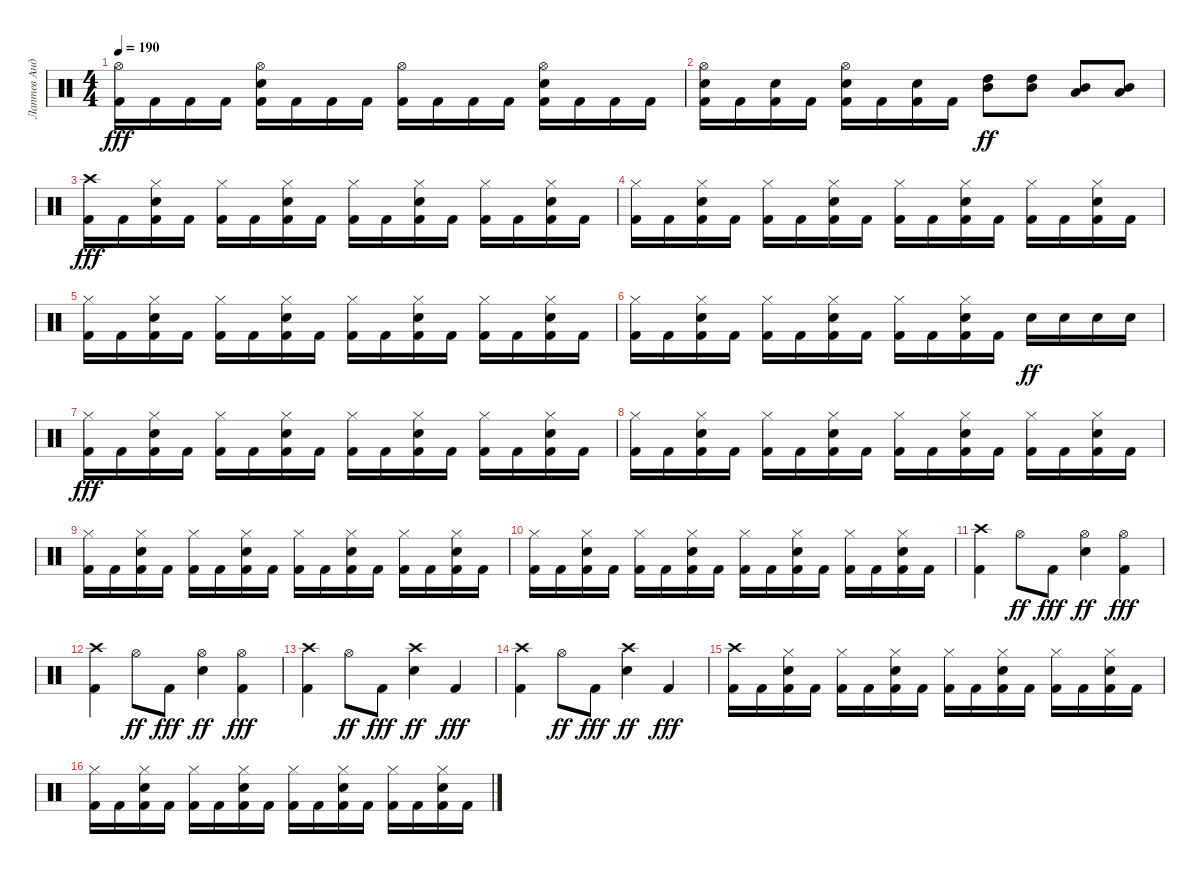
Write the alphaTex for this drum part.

\track ("Лаптев Андрей" "Лаптев Анд") {instrument percussion}
\staff {score}
\articulation defaults
\ts (4 4)
\tempo 190
\clef neutral
\ks c
("Hi-Hat (open)" "Kick (hit) 2").16{dy fff} "Kick (hit) 2".16 "Kick (hit) 2".16 "Kick (hit) 2".16 ("Electric Snare (hit)" "Hi-Hat (open)" "Kick (hit) 2").16 "Kick (hit) 2".16 "Kick (hit) 2".16 "Kick (hit) 2".16 ("Hi-Hat (open)" "Kick (hit) 2").16 "Kick (hit) 2".16 "Kick (hit) 2".16 "Kick (hit) 2".16 ("Hi-Hat (open)" "Electric Snare (hit)" "Kick (hit) 2").16 "Kick (hit) 2".16 "Kick (hit) 2".16 "Kick (hit) 2".16 |
("Hi-Hat (open)" "Electric Snare (hit)" "Kick (hit) 2").16 "Kick (hit) 2".16 ("Electric Snare (hit)" "Kick (hit) 2").16 "Kick (hit) 2".16 ("Electric Snare (hit)" "Hi-Hat (open)" "Kick (hit) 2").16 "Kick (hit) 2".16 ("Electric Snare (hit)" "Kick (hit) 2").16 "Kick (hit) 2".16 ("Mid Tom (hit)" "High Tom (hit)").8{dy ff} ("Mid Tom (hit)" "High Tom (hit)").8 ("Low Tom (hit)" "Mid Tom (hit)").8 ("Low Tom (hit)" "Mid Tom (hit)").8 |
("Crash high (hit)" "Kick (hit) 2").16{dy fff} "Kick (hit) 2".16 ("Electric Snare (hit)" "Hi-Hat (closed)" "Kick (hit) 2").16 "Kick (hit) 2".16 ("Hi-Hat (closed)" "Kick (hit) 2").16 "Kick (hit) 2".16 ("Electric Snare (hit)" "Hi-Hat (closed)" "Kick (hit) 2").16 "Kick (hit) 2".16 ("Hi-Hat (closed)" "Kick (hit) 2").16 "Kick (hit) 2".16 ("Hi-Hat (closed)" "Electric Snare (hit)" "Kick (hit) 2").16 "Kick (hit) 2".16 ("Hi-Hat (closed)" "Kick (hit) 2").16 "Kick (hit) 2".16 ("Electric Snare (hit)" "Hi-Hat (closed)" "Kick (hit) 2").16 "Kick (hit) 2".16 |
("Hi-Hat (closed)" "Kick (hit) 2").16 "Kick (hit) 2".16 ("Hi-Hat (closed)" "Electric Snare (hit)" "Kick (hit) 2").16 "Kick (hit) 2".16 ("Hi-Hat (closed)" "Kick (hit) 2").16 "Kick (hit) 2".16 ("Hi-Hat (closed)" "Electric Snare (hit)" "Kick (hit) 2").16 "Kick (hit) 2".16 ("Hi-Hat (closed)" "Kick (hit) 2").16 "Kick (hit) 2".16 ("Hi-Hat (closed)" "Electric Snare (hit)" "Kick (hit) 2").16 "Kick (hit) 2".16 ("Hi-Hat (closed)" "Kick (hit) 2").16 "Kick (hit) 2".16 ("Hi-Hat (closed)" "Electric Snare (hit)" "Kick (hit) 2").16 "Kick (hit) 2".16 |
("Hi-Hat (closed)" "Kick (hit) 2").16 "Kick (hit) 2".16 ("Hi-Hat (closed)" "Electric Snare (hit)" "Kick (hit) 2").16 "Kick (hit) 2".16 ("Hi-Hat (closed)" "Kick (hit) 2").16 "Kick (hit) 2".16 ("Hi-Hat (closed)" "Electric Snare (hit)" "Kick (hit) 2").16 "Kick (hit) 2".16 ("Hi-Hat (closed)" "Kick (hit) 2").16 "Kick (hit) 2".16 ("Hi-Hat (closed)" "Electric Snare (hit)" "Kick (hit) 2").16 "Kick (hit) 2".16 ("Hi-Hat (closed)" "Kick (hit) 2").16 "Kick (hit) 2".16 ("Hi-Hat (closed)" "Electric Snare (hit)" "Kick (hit) 2").16 "Kick (hit) 2".16 |
("Hi-Hat (closed)" "Kick (hit) 2").16 "Kick (hit) 2".16 ("Hi-Hat (closed)" "Electric Snare (hit)" "Kick (hit) 2").16 "Kick (hit) 2".16 ("Hi-Hat (closed)" "Kick (hit) 2").16 "Kick (hit) 2".16 ("Hi-Hat (closed)" "Electric Snare (hit)" "Kick (hit) 2").16 "Kick (hit) 2".16 ("Hi-Hat (closed)" "Kick (hit) 2").16 "Kick (hit) 2".16 ("Hi-Hat (closed)" "Electric Snare (hit)" "Kick (hit) 2").16 "Kick (hit) 2".16 "Electric Snare (hit)".16{dy ff} "Electric Snare (hit)".16 "Electric Snare (hit)".16 "Electric Snare (hit)".16 |
("Hi-Hat (closed)" "Kick (hit) 2").16{dy fff} "Kick (hit) 2".16 ("Hi-Hat (closed)" "Electric Snare (hit)" "Kick (hit) 2").16 "Kick (hit) 2".16 ("Hi-Hat (closed)" "Kick (hit) 2").16 "Kick (hit) 2".16 ("Hi-Hat (closed)" "Electric Snare (hit)" "Kick (hit) 2").16 "Kick (hit) 2".16 ("Hi-Hat (closed)" "Kick (hit) 2").16 "Kick (hit) 2".16 ("Hi-Hat (closed)" "Electric Snare (hit)" "Kick (hit) 2").16 "Kick (hit) 2".16 ("Hi-Hat (closed)" "Kick (hit) 2").16 "Kick (hit) 2".16 ("Hi-Hat (closed)" "Electric Snare (hit)" "Kick (hit) 2").16 "Kick (hit) 2".16 |
("Hi-Hat (closed)" "Kick (hit) 2").16 "Kick (hit) 2".16 ("Hi-Hat (closed)" "Electric Snare (hit)" "Kick (hit) 2").16 "Kick (hit) 2".16 ("Hi-Hat (closed)" "Kick (hit) 2").16 "Kick (hit) 2".16 ("Hi-Hat (closed)" "Electric Snare (hit)" "Kick (hit) 2").16 "Kick (hit) 2".16 ("Hi-Hat (closed)" "Kick (hit) 2").16 "Kick (hit) 2".16 ("Hi-Hat (closed)" "Electric Snare (hit)" "Kick (hit) 2").16 "Kick (hit) 2".16 ("Hi-Hat (closed)" "Kick (hit) 2").16 "Kick (hit) 2".16 ("Hi-Hat (closed)" "Electric Snare (hit)" "Kick (hit) 2").16 "Kick (hit) 2".16 |
("Hi-Hat (closed)" "Kick (hit) 2").16 "Kick (hit) 2".16 ("Hi-Hat (closed)" "Electric Snare (hit)" "Kick (hit) 2").16 "Kick (hit) 2".16 ("Hi-Hat (closed)" "Kick (hit) 2").16 "Kick (hit) 2".16 ("Hi-Hat (closed)" "Electric Snare (hit)" "Kick (hit) 2").16 "Kick (hit) 2".16 ("Hi-Hat (closed)" "Kick (hit) 2").16 "Kick (hit) 2".16 ("Hi-Hat (closed)" "Electric Snare (hit)" "Kick (hit) 2").16 "Kick (hit) 2".16 ("Hi-Hat (closed)" "Kick (hit) 2").16 "Kick (hit) 2".16 ("Hi-Hat (closed)" "Electric Snare (hit)" "Kick (hit) 2").16 "Kick (hit) 2".16 |
("Hi-Hat (closed)" "Kick (hit) 2").16 "Kick (hit) 2".16 ("Hi-Hat (closed)" "Electric Snare (hit)" "Kick (hit) 2").16 "Kick (hit) 2".16 ("Hi-Hat (closed)" "Kick (hit) 2").16 "Kick (hit) 2".16 ("Hi-Hat (closed)" "Electric Snare (hit)" "Kick (hit) 2").16 "Kick (hit) 2".16 ("Hi-Hat (closed)" "Kick (hit) 2").16 "Kick (hit) 2".16 ("Hi-Hat (closed)" "Electric Snare (hit)" "Kick (hit) 2").16 "Kick (hit) 2".16 ("Hi-Hat (closed)" "Kick (hit) 2").16 "Kick (hit) 2".16 ("Hi-Hat (closed)" "Electric Snare (hit)" "Kick (hit) 2").16 "Kick (hit) 2".16 |
("Crash high (hit)" "Kick (hit) 2").4 "Hi-Hat (open)".8{dy ff} "Kick (hit) 2".8{dy fff} ("Snare (hit) 2" "Hi-Hat (open)").4{dy ff} ("Hi-Hat (open)" "Kick (hit) 2").4{dy fff} |
("Crash high (hit)" "Kick (hit) 2").4 "Hi-Hat (open)".8{dy ff} "Kick (hit) 2".8{dy fff} ("Snare (hit) 2" "Hi-Hat (open)").4{dy ff} ("Hi-Hat (open)" "Kick (hit) 2").4{dy fff} |
("Crash high (hit)" "Kick (hit) 2").4 "Hi-Hat (open)".8{dy ff} "Kick (hit) 2".8{dy fff} ("Snare (hit) 2" "Crash high (hit)").4{dy ff} "Kick (hit) 2".4{dy fff} |
("Crash high (hit)" "Kick (hit) 2").4 "Hi-Hat (open)".8{dy ff} "Kick (hit) 2".8{dy fff} ("Snare (hit) 2" "Crash high (hit)").4{dy ff} "Kick (hit) 2".4{dy fff} |
("Crash high (hit)" "Kick (hit) 2").16 "Kick (hit) 2".16 ("Hi-Hat (closed)" "Electric Snare (hit)" "Kick (hit) 2").16 "Kick (hit) 2".16 ("Hi-Hat (closed)" "Kick (hit) 2").16 "Kick (hit) 2".16 ("Electric Snare (hit)" "Hi-Hat (closed)" "Kick (hit) 2").16 "Kick (hit) 2".16 ("Hi-Hat (closed)" "Kick (hit) 2").16 "Kick (hit) 2".16 ("Electric Snare (hit)" "Hi-Hat (closed)" "Kick (hit) 2").16 "Kick (hit) 2".16 ("Hi-Hat (closed)" "Kick (hit) 2").16 "Kick (hit) 2".16 ("Electric Snare (hit)" "Hi-Hat (closed)" "Kick (hit) 2").16 "Kick (hit) 2".16 |
("Hi-Hat (closed)" "Kick (hit) 2").16 "Kick (hit) 2".16 ("Electric Snare (hit)" "Hi-Hat (closed)" "Kick (hit) 2").16 "Kick (hit) 2".16 ("Hi-Hat (closed)" "Kick (hit) 2").16 "Kick (hit) 2".16 ("Electric Snare (hit)" "Hi-Hat (closed)" "Kick (hit) 2").16 "Kick (hit) 2".16 ("Hi-Hat (closed)" "Kick (hit) 2").16 "Kick (hit) 2".16 ("Electric Snare (hit)" "Hi-Hat (closed)" "Kick (hit) 2").16 "Kick (hit) 2".16 ("Hi-Hat (closed)" "Kick (hit) 2").16 "Kick (hit) 2".16 ("Electric Snare (hit)" "Hi-Hat (closed)" "Kick (hit) 2").16 "Kick (hit) 2".16
